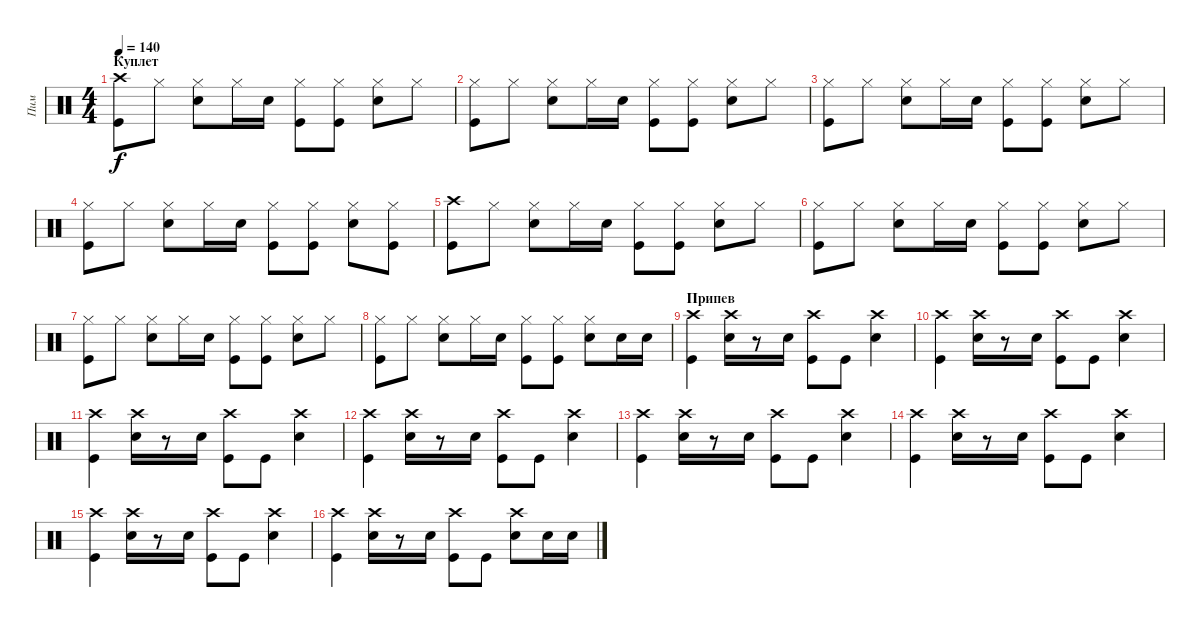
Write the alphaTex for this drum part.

\track ("Пим" "Пим") {instrument percussion}
\staff {score}
\articulation defaults
\ts (4 4)
\section ("" "Куплет")
\tempo 140
\clef neutral
\ks c
("Crash high (hit)" "Kick (hit)").8{dy f} "Hi-Hat (closed)".8 ("Hi-Hat (closed)" "Snare (hit) 2").8 "Hi-Hat (closed)".16 "Snare (hit) 2".16 ("Hi-Hat (closed)" "Kick (hit)").8 ("Hi-Hat (closed)" "Kick (hit)").8 ("Hi-Hat (closed)" "Snare (hit) 2").8 "Hi-Hat (closed)".8 |
("Hi-Hat (closed)" "Kick (hit)").8 "Hi-Hat (closed)".8 ("Hi-Hat (closed)" "Snare (hit) 2").8 "Hi-Hat (closed)".16 "Snare (hit) 2".16 ("Hi-Hat (closed)" "Kick (hit)").8 ("Hi-Hat (closed)" "Kick (hit)").8 ("Hi-Hat (closed)" "Snare (hit) 2").8 "Hi-Hat (closed)".8 |
("Hi-Hat (closed)" "Kick (hit)").8 "Hi-Hat (closed)".8 ("Hi-Hat (closed)" "Snare (hit) 2").8 "Hi-Hat (closed)".16 "Snare (hit) 2".16 ("Hi-Hat (closed)" "Kick (hit)").8 ("Hi-Hat (closed)" "Kick (hit)").8 ("Hi-Hat (closed)" "Snare (hit) 2").8 "Hi-Hat (closed)".8 |
("Hi-Hat (closed)" "Kick (hit)").8 "Hi-Hat (closed)".8 ("Hi-Hat (closed)" "Snare (hit) 2").8 "Hi-Hat (closed)".16 "Snare (hit) 2".16 ("Hi-Hat (closed)" "Kick (hit)").8 ("Hi-Hat (closed)" "Kick (hit)").8 ("Hi-Hat (closed)" "Snare (hit) 2").8 ("Hi-Hat (closed)" "Kick (hit)").8 |
("Crash high (hit)" "Kick (hit)").8 "Hi-Hat (closed)".8 ("Hi-Hat (closed)" "Snare (hit) 2").8 "Hi-Hat (closed)".16 "Snare (hit) 2".16 ("Hi-Hat (closed)" "Kick (hit)").8 ("Hi-Hat (closed)" "Kick (hit)").8 ("Hi-Hat (closed)" "Snare (hit) 2").8 "Hi-Hat (closed)".8 |
("Hi-Hat (closed)" "Kick (hit)").8 "Hi-Hat (closed)".8 ("Hi-Hat (closed)" "Snare (hit) 2").8 "Hi-Hat (closed)".16 "Snare (hit) 2".16 ("Hi-Hat (closed)" "Kick (hit)").8 ("Hi-Hat (closed)" "Kick (hit)").8 ("Hi-Hat (closed)" "Snare (hit) 2").8 "Hi-Hat (closed)".8 |
("Hi-Hat (closed)" "Kick (hit)").8 "Hi-Hat (closed)".8 ("Hi-Hat (closed)" "Snare (hit) 2").8 "Hi-Hat (closed)".16 "Snare (hit) 2".16 ("Hi-Hat (closed)" "Kick (hit)").8 ("Hi-Hat (closed)" "Kick (hit)").8 ("Hi-Hat (closed)" "Snare (hit) 2").8 "Hi-Hat (closed)".8 |
("Hi-Hat (closed)" "Kick (hit)").8 "Hi-Hat (closed)".8 ("Hi-Hat (closed)" "Snare (hit) 2").8 "Hi-Hat (closed)".16 "Snare (hit) 2".16 ("Hi-Hat (closed)" "Kick (hit)").8 ("Hi-Hat (closed)" "Kick (hit)").8 ("Hi-Hat (closed)" "Snare (hit) 2").8 "Snare (hit) 2".16 "Snare (hit) 2".16 |
\section ("" "Припев")
("Crash high (hit)" "Kick (hit)").4 ("Crash high (hit)" "Snare (hit) 2").16 r.8 "Snare (hit) 2".16 ("Crash high (hit)" "Kick (hit)").8 "Kick (hit)".8 ("Crash high (hit)" "Snare (hit) 2").4 |
("Crash high (hit)" "Kick (hit)").4 ("Crash high (hit)" "Snare (hit) 2").16 r.8 "Snare (hit) 2".16 ("Crash high (hit)" "Kick (hit)").8 "Kick (hit)".8 ("Crash high (hit)" "Snare (hit) 2").4 |
("Crash high (hit)" "Kick (hit)").4 ("Crash high (hit)" "Snare (hit) 2").16 r.8 "Snare (hit) 2".16 ("Crash high (hit)" "Kick (hit)").8 "Kick (hit)".8 ("Crash high (hit)" "Snare (hit) 2").4 |
("Crash high (hit)" "Kick (hit)").4 ("Crash high (hit)" "Snare (hit) 2").16 r.8 "Snare (hit) 2".16 ("Crash high (hit)" "Kick (hit)").8 "Kick (hit)".8 ("Crash high (hit)" "Snare (hit) 2").4 |
("Crash high (hit)" "Kick (hit)").4 ("Crash high (hit)" "Snare (hit) 2").16 r.8 "Snare (hit) 2".16 ("Crash high (hit)" "Kick (hit)").8 "Kick (hit)".8 ("Crash high (hit)" "Snare (hit) 2").4 |
("Crash high (hit)" "Kick (hit)").4 ("Crash high (hit)" "Snare (hit) 2").16 r.8 "Snare (hit) 2".16 ("Crash high (hit)" "Kick (hit)").8 "Kick (hit)".8 ("Crash high (hit)" "Snare (hit) 2").4 |
("Crash high (hit)" "Kick (hit)").4 ("Crash high (hit)" "Snare (hit) 2").16 r.8 "Snare (hit) 2".16 ("Crash high (hit)" "Kick (hit)").8 "Kick (hit)".8 ("Crash high (hit)" "Snare (hit) 2").4 |
("Crash high (hit)" "Kick (hit)").4 ("Crash high (hit)" "Snare (hit) 2").16 r.8 "Snare (hit) 2".16 ("Crash high (hit)" "Kick (hit)").8 "Kick (hit)".8 ("Crash high (hit)" "Snare (hit) 2").8 "Snare (hit) 2".16 "Snare (hit) 2".16
